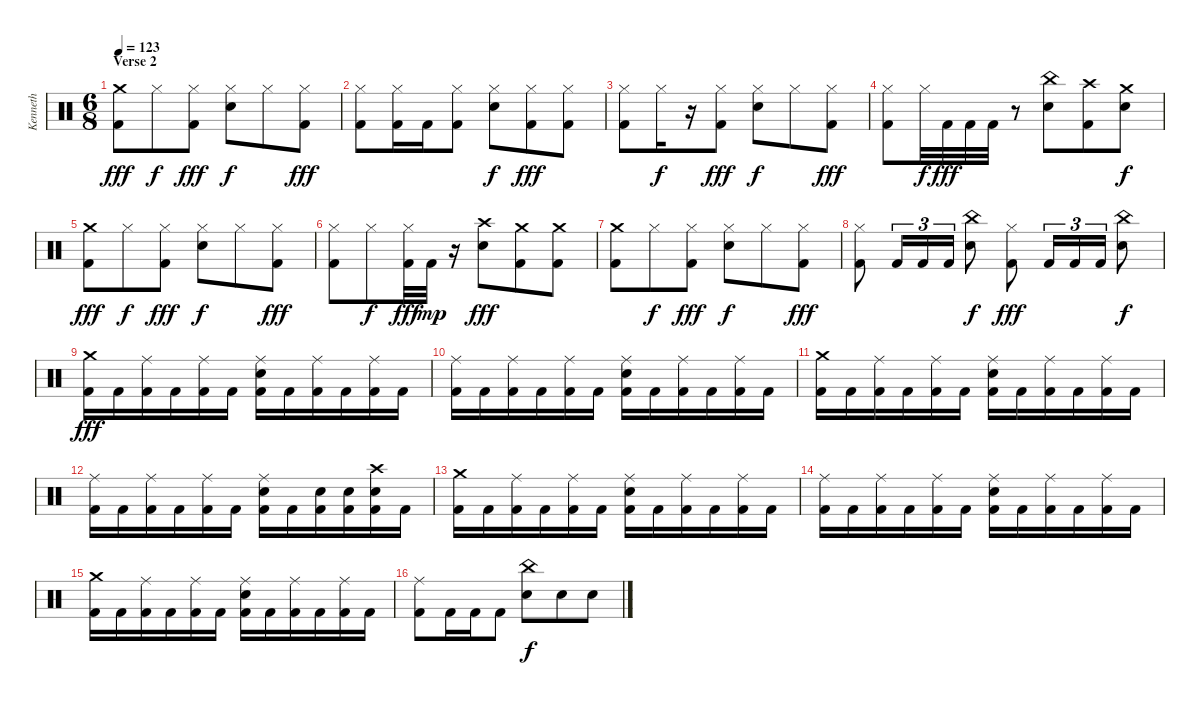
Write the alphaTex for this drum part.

\track ("Kenneth" "Kenneth") {instrument percussion}
\staff {score}
\articulation defaults
\ts (6 8)
\section ("" "Verse 2")
\tempo 123
\clef neutral
\ks c
("Crash medium (hit)" "Kick (hit) 2").8{dy fff} "Hi-Hat (closed)".8{dy f} ("Hi-Hat (closed)" "Kick (hit) 2").8{dy fff} ("Hi-Hat (closed)" "Snare (hit) 2").8{dy f} "Hi-Hat (closed)".8 ("Hi-Hat (closed)" "Kick (hit) 2").8{dy fff} |
("Hi-Hat (closed)" "Kick (hit) 2").8 ("Hi-Hat (closed)" "Kick (hit) 2").16 "Kick (hit) 2".16 ("Hi-Hat (closed)" "Kick (hit) 2").8 ("Hi-Hat (closed)" "Snare (hit) 2").8{dy f} ("Hi-Hat (closed)" "Kick (hit) 2").8{dy fff} ("Hi-Hat (closed)" "Kick (hit) 2").8 |
("Hi-Hat (closed)" "Kick (hit) 2").8 "Hi-Hat (closed)".16{dy f} r.16 ("Hi-Hat (closed)" "Kick (hit) 2").8{dy fff} ("Hi-Hat (closed)" "Snare (hit) 2").8{dy f} "Hi-Hat (closed)".8 ("Hi-Hat (closed)" "Kick (hit) 2").8{dy fff} |
("Hi-Hat (closed)" "Kick (hit) 2").8 "Hi-Hat (closed)".32{dy f} "Kick (hit) 2".32{dy fff} "Kick (hit) 2".32 "Kick (hit) 2".32 r.8 ("China (hit)" "Snare (hit) 2").8 ("Crash high (hit)" "Kick (hit) 2").8 ("Crash medium (hit)" "Snare (hit) 2").8{dy f} |
("Crash medium (hit)" "Kick (hit) 2").8{dy fff} "Hi-Hat (closed)".8{dy f} ("Hi-Hat (closed)" "Kick (hit) 2").8{dy fff} ("Hi-Hat (closed)" "Snare (hit) 2").8{dy f} "Hi-Hat (closed)".8 ("Hi-Hat (closed)" "Kick (hit) 2").8{dy fff} |
("Hi-Hat (closed)" "Kick (hit) 2").8 "Hi-Hat (closed)".8{dy f} ("Hi-Hat (closed)" "Kick (hit) 2").32{dy fff} "Kick (hit) 2".32{dy mp} r.16 ("Crash high (hit)" "Snare (hit) 2").8{dy fff} ("Crash medium (hit)" "Kick (hit) 2").8 ("Crash medium (hit)" "Kick (hit) 2").8 |
("Crash medium (hit)" "Kick (hit) 2").8 "Hi-Hat (closed)".8{dy f} ("Hi-Hat (closed)" "Kick (hit) 2").8{dy fff} ("Hi-Hat (closed)" "Snare (hit) 2").8{dy f} "Hi-Hat (closed)".8 ("Hi-Hat (closed)" "Kick (hit) 2").8{dy fff} |
("Hi-Hat (closed)" "Kick (hit) 2").8 "Kick (hit) 2".16{tu (3 2)} "Kick (hit) 2".16{tu (3 2)} "Kick (hit) 2".16{tu (3 2)} ("China (hit)" "Snare (hit) 2").8{dy f} ("Hi-Hat (closed)" "Kick (hit) 2").8{dy fff} "Kick (hit) 2".16{tu (3 2)} "Kick (hit) 2".16{tu (3 2)} "Kick (hit) 2".16{tu (3 2)} ("China (hit)" "Snare (hit) 2").8{dy f} |
("Crash medium (hit)" "Kick (hit) 2").16{dy fff} "Kick (hit) 2".16 ("Ride (middle)" "Kick (hit) 2").16 "Kick (hit) 2".16 ("Ride (middle)" "Kick (hit) 2").16 "Kick (hit) 2".16 ("Ride (middle)" "Snare (hit) 2" "Kick (hit) 2").16 "Kick (hit) 2".16 ("Ride (middle)" "Kick (hit) 2").16 "Kick (hit) 2".16 ("Ride (middle)" "Kick (hit) 2").16 "Kick (hit) 2".16 |
("Ride (middle)" "Kick (hit) 2").16 "Kick (hit) 2".16 ("Ride (middle)" "Kick (hit) 2").16 "Kick (hit) 2".16 ("Ride (middle)" "Kick (hit) 2").16 "Kick (hit) 2".16 ("Ride (middle)" "Snare (hit) 2" "Kick (hit) 2").16 "Kick (hit) 2".16 ("Ride (middle)" "Kick (hit) 2").16 "Kick (hit) 2".16 ("Ride (middle)" "Kick (hit) 2").16 "Kick (hit) 2".16 |
("Crash medium (hit)" "Kick (hit) 2").16 "Kick (hit) 2".16 ("Ride (middle)" "Kick (hit) 2").16 "Kick (hit) 2".16 ("Ride (middle)" "Kick (hit) 2").16 "Kick (hit) 2".16 ("Ride (middle)" "Snare (hit) 2" "Kick (hit) 2").16 "Kick (hit) 2".16 ("Ride (middle)" "Kick (hit) 2").16 "Kick (hit) 2".16 ("Ride (middle)" "Kick (hit) 2").16 "Kick (hit) 2".16 |
("Ride (middle)" "Kick (hit) 2").16 "Kick (hit) 2".16 ("Ride (middle)" "Kick (hit) 2").16 "Kick (hit) 2".16 ("Ride (middle)" "Kick (hit) 2").16 "Kick (hit) 2".16 ("Ride (middle)" "Snare (hit) 2" "Kick (hit) 2").16 "Kick (hit) 2".16 ("Snare (hit) 2" "Kick (hit) 2").16 ("Snare (hit) 2" "Kick (hit) 2").16 ("Crash high (hit)" "Snare (hit) 2" "Kick (hit) 2").16 "Kick (hit) 2".16 |
("Crash medium (hit)" "Kick (hit) 2").16 "Kick (hit) 2".16 ("Ride (middle)" "Kick (hit) 2").16 "Kick (hit) 2".16 ("Ride (middle)" "Kick (hit) 2").16 "Kick (hit) 2".16 ("Ride (middle)" "Snare (hit) 2" "Kick (hit) 2").16 "Kick (hit) 2".16 ("Ride (middle)" "Kick (hit) 2").16 "Kick (hit) 2".16 ("Ride (middle)" "Kick (hit) 2").16 "Kick (hit) 2".16 |
("Ride (middle)" "Kick (hit) 2").16 "Kick (hit) 2".16 ("Ride (middle)" "Kick (hit) 2").16 "Kick (hit) 2".16 ("Ride (middle)" "Kick (hit) 2").16 "Kick (hit) 2".16 ("Ride (middle)" "Snare (hit) 2" "Kick (hit) 2").16 "Kick (hit) 2".16 ("Ride (middle)" "Kick (hit) 2").16 "Kick (hit) 2".16 ("Ride (middle)" "Kick (hit) 2").16 "Kick (hit) 2".16 |
("Crash medium (hit)" "Kick (hit) 2").16 "Kick (hit) 2".16 ("Ride (middle)" "Kick (hit) 2").16 "Kick (hit) 2".16 ("Ride (middle)" "Kick (hit) 2").16 "Kick (hit) 2".16 ("Ride (middle)" "Snare (hit) 2" "Kick (hit) 2").16 "Kick (hit) 2".16 ("Ride (middle)" "Kick (hit) 2").16 "Kick (hit) 2".16 ("Ride (middle)" "Kick (hit) 2").16 "Kick (hit) 2".16 |
("Ride (middle)" "Kick (hit) 2").8 "Kick (hit) 2".16 "Kick (hit) 2".16 "Kick (hit) 2".8 ("China (hit)" "Snare (hit) 2").8{dy f} "Snare (hit) 2".8 "Snare (hit) 2".8
